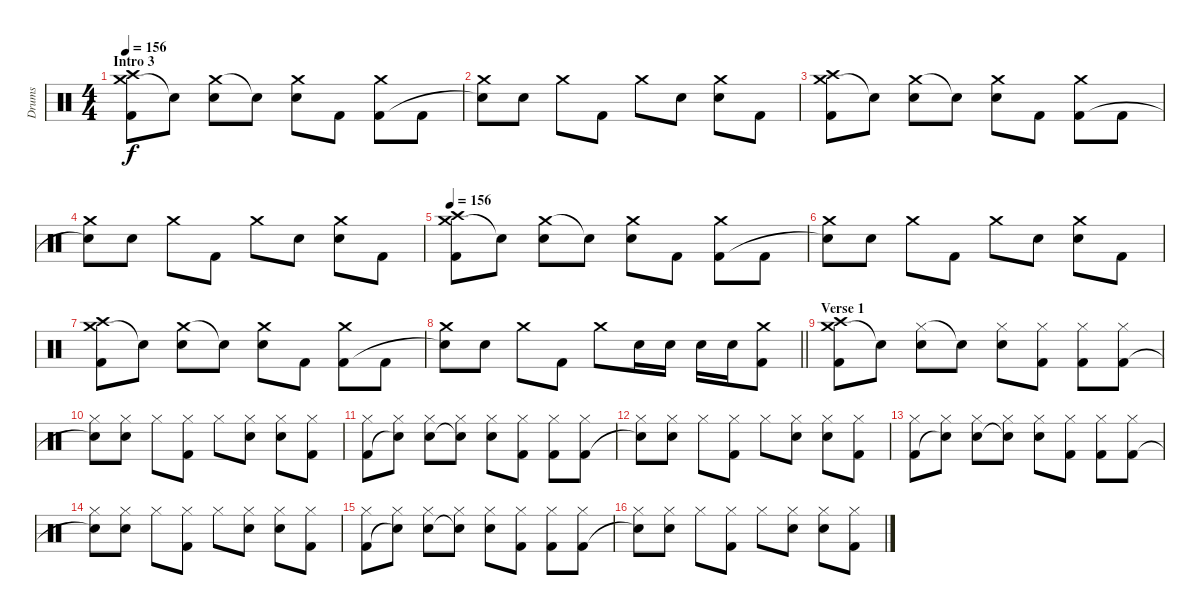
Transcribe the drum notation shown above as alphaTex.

\track ("Drums" "Drums") {instrument percussion}
\staff {score}
\articulation defaults
\ts (4 4)
\section ("" "Intro 3")
\tempo 156
\clef neutral
\ks c
("Crash medium (hit)" "Crash high (hit)" "Kick (hit) 2").8{dy f} "Snare (hit)"{t}.8 ("Crash medium (hit)" "Electric Snare (hit)").8 "Snare (hit)"{t}.8 ("Crash medium (hit)" "Electric Snare (hit)").8 "Kick (hit) 2".8 ("Crash medium (hit)" "Kick (hit) 2").8 "Kick (hit) 2".8 |
("Crash medium (hit)" "Snare (hit)"{t}).8 "Electric Snare (hit)".8 "Crash medium (hit)".8 "Kick (hit) 2".8 "Crash medium (hit)".8 "Electric Snare (hit)".8 ("Crash medium (hit)" "Electric Snare (hit)").8 "Kick (hit) 2".8 |
("Crash medium (hit)" "Crash high (hit)" "Kick (hit) 2").8 "Snare (hit)"{t}.8 ("Crash medium (hit)" "Electric Snare (hit)").8 "Snare (hit)"{t}.8 ("Crash medium (hit)" "Electric Snare (hit)").8 "Kick (hit) 2".8 ("Crash medium (hit)" "Kick (hit) 2").8 "Kick (hit) 2".8 |
("Crash medium (hit)" "Snare (hit)"{t}).8 "Electric Snare (hit)".8 "Crash medium (hit)".8 "Kick (hit) 2".8 "Crash medium (hit)".8 "Electric Snare (hit)".8 ("Crash medium (hit)" "Electric Snare (hit)").8 "Kick (hit) 2".8 |
\tempo 156
("Crash medium (hit)" "Crash high (hit)" "Kick (hit) 2").8 "Snare (hit)"{t}.8 ("Crash medium (hit)" "Electric Snare (hit)").8 "Snare (hit)"{t}.8 ("Crash medium (hit)" "Electric Snare (hit)").8 "Kick (hit) 2".8 ("Crash medium (hit)" "Kick (hit) 2").8 "Kick (hit) 2".8 |
("Crash medium (hit)" "Snare (hit)"{t}).8 "Electric Snare (hit)".8 "Crash medium (hit)".8 "Kick (hit) 2".8 "Crash medium (hit)".8 "Electric Snare (hit)".8 ("Crash medium (hit)" "Electric Snare (hit)").8 "Kick (hit) 2".8 |
("Crash medium (hit)" "Crash high (hit)" "Kick (hit) 2").8 "Snare (hit)"{t}.8 ("Crash medium (hit)" "Electric Snare (hit)").8 "Snare (hit)"{t}.8 ("Crash medium (hit)" "Electric Snare (hit)").8 "Kick (hit) 2".8 ("Crash medium (hit)" "Kick (hit) 2").8 "Kick (hit) 2".8 |
\barLineRight lightlight
("Crash medium (hit)" "Snare (hit)"{t}).8 "Electric Snare (hit)".8 "Crash medium (hit)".8 "Kick (hit) 2".8 "Crash medium (hit)".8 "Electric Snare (hit)".16 "Electric Snare (hit)".16 "Electric Snare (hit)".16 "Electric Snare (hit)".16 ("Crash medium (hit)" "Kick (hit) 2").8 |
\section ("" "Verse 1")
("Crash medium (hit)" "Crash high (hit)" "Kick (hit) 2").8 "Snare (hit)"{t}.8 ("Hi-Hat (closed)" "Electric Snare (hit)").8 "Snare (hit)"{t}.8 ("Hi-Hat (closed)" "Electric Snare (hit)").8 ("Hi-Hat (closed)" "Kick (hit) 2").8 ("Hi-Hat (closed)" "Kick (hit) 2").8 ("Hi-Hat (closed)" "Kick (hit) 2").8 |
("Hi-Hat (closed)" "Snare (hit)"{t}).8 ("Hi-Hat (closed)" "Electric Snare (hit)").8 "Hi-Hat (closed)".8 ("Hi-Hat (closed)" "Kick (hit) 2").8 "Hi-Hat (closed)".8 ("Hi-Hat (closed)" "Electric Snare (hit)").8 ("Hi-Hat (closed)" "Electric Snare (hit)").8 ("Hi-Hat (closed)" "Kick (hit) 2").8 |
("Hi-Hat (closed)" "Kick (hit) 2").8 ("Hi-Hat (closed)" "Snare (hit)"{t}).8 ("Hi-Hat (closed)" "Electric Snare (hit)").8 ("Hi-Hat (closed)" "Snare (hit)"{t}).8 ("Hi-Hat (closed)" "Electric Snare (hit)").8 ("Hi-Hat (closed)" "Kick (hit) 2").8 ("Hi-Hat (closed)" "Kick (hit) 2").8 ("Hi-Hat (closed)" "Kick (hit) 2").8 |
("Hi-Hat (closed)" "Snare (hit)"{t}).8 ("Hi-Hat (closed)" "Electric Snare (hit)").8 "Hi-Hat (closed)".8 ("Hi-Hat (closed)" "Kick (hit) 2").8 "Hi-Hat (closed)".8 ("Hi-Hat (closed)" "Electric Snare (hit)").8 ("Hi-Hat (closed)" "Electric Snare (hit)").8 ("Hi-Hat (closed)" "Kick (hit) 2").8 |
("Hi-Hat (closed)" "Kick (hit) 2").8 ("Hi-Hat (closed)" "Snare (hit)"{t}).8 ("Hi-Hat (closed)" "Electric Snare (hit)").8 ("Hi-Hat (closed)" "Snare (hit)"{t}).8 ("Hi-Hat (closed)" "Electric Snare (hit)").8 ("Hi-Hat (closed)" "Kick (hit) 2").8 ("Hi-Hat (closed)" "Kick (hit) 2").8 ("Hi-Hat (closed)" "Kick (hit) 2").8 |
("Hi-Hat (closed)" "Snare (hit)"{t}).8 ("Hi-Hat (closed)" "Electric Snare (hit)").8 "Hi-Hat (closed)".8 ("Hi-Hat (closed)" "Kick (hit) 2").8 "Hi-Hat (closed)".8 ("Hi-Hat (closed)" "Electric Snare (hit)").8 ("Hi-Hat (closed)" "Electric Snare (hit)").8 ("Hi-Hat (closed)" "Kick (hit) 2").8 |
("Hi-Hat (closed)" "Kick (hit) 2").8 ("Hi-Hat (closed)" "Snare (hit)"{t}).8 ("Hi-Hat (closed)" "Electric Snare (hit)").8 ("Hi-Hat (closed)" "Snare (hit)"{t}).8 ("Hi-Hat (closed)" "Electric Snare (hit)").8 ("Hi-Hat (closed)" "Kick (hit) 2").8 ("Hi-Hat (closed)" "Kick (hit) 2").8 ("Hi-Hat (closed)" "Kick (hit) 2").8 |
("Hi-Hat (closed)" "Snare (hit)"{t}).8 ("Hi-Hat (closed)" "Electric Snare (hit)").8 "Hi-Hat (closed)".8 ("Hi-Hat (closed)" "Kick (hit) 2").8 "Hi-Hat (closed)".8 ("Hi-Hat (closed)" "Electric Snare (hit)").8 ("Hi-Hat (closed)" "Electric Snare (hit)").8 ("Hi-Hat (closed)" "Kick (hit) 2").8
